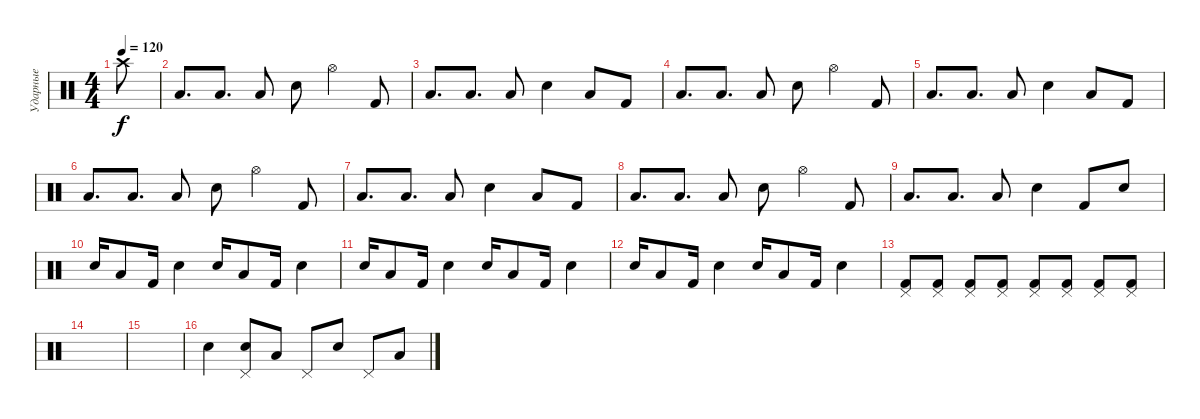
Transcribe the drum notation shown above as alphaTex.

\track ("Ударные" "Ударные") {instrument percussion}
\staff {score}
\articulation defaults
\ts (4 4)
\tempo 120
\clef neutral
\ks c "Crash high (hit)".8{dy f}
|
"Low Tom (hit)".8{d} "Low Tom (hit)".8{d} "Low Tom (hit)".8 "Snare (hit) 2".8 "Hi-Hat (open)".4 "Kick (hit) 2".8 |
"Low Tom (hit)".8{d} "Low Tom (hit)".8{d} "Low Tom (hit)".8 "Snare (hit) 2".4 "Low Tom (hit)".8 "Kick (hit) 2".8 |
"Low Tom (hit)".8{d} "Low Tom (hit)".8{d} "Low Tom (hit)".8 "Snare (hit) 2".8 "Hi-Hat (open)".4 "Kick (hit) 2".8 |
"Low Tom (hit)".8{d} "Low Tom (hit)".8{d} "Low Tom (hit)".8 "Snare (hit) 2".4 "Low Tom (hit)".8 "Kick (hit) 2".8 |
"Low Tom (hit)".8{d} "Low Tom (hit)".8{d} "Low Tom (hit)".8 "Snare (hit) 2".8 "Hi-Hat (open)".4 "Kick (hit) 2".8 |
"Low Tom (hit)".8{d} "Low Tom (hit)".8{d} "Low Tom (hit)".8 "Snare (hit) 2".4 "Low Tom (hit)".8 "Kick (hit) 2".8 |
"Low Tom (hit)".8{d} "Low Tom (hit)".8{d} "Low Tom (hit)".8 "Snare (hit) 2".8 "Hi-Hat (open)".4 "Kick (hit) 2".8 |
"Low Tom (hit)".8{d} "Low Tom (hit)".8{d} "Low Tom (hit)".8 "Snare (hit) 2".4 "Kick (hit) 2".8 "Snare (hit) 2".8 |
"Snare (hit) 2".16 "Low Tom (hit)".8 "Kick (hit) 2".16 "Snare (hit) 2".4 "Snare (hit) 2".16 "Low Tom (hit)".8 "Kick (hit) 2".16 "Snare (hit) 2".4 |
"Snare (hit) 2".16 "Low Tom (hit)".8 "Kick (hit) 2".16 "Snare (hit) 2".4 "Snare (hit) 2".16 "Low Tom (hit)".8 "Kick (hit) 2".16 "Snare (hit) 2".4 |
"Snare (hit) 2".16 "Low Tom (hit)".8 "Kick (hit) 2".16 "Snare (hit) 2".4 "Snare (hit) 2".16 "Low Tom (hit)".8 "Kick (hit) 2".16 "Snare (hit) 2".4 |
("Pedal Hi-Hat (hit)" "Kick (hit) 2").8 ("Pedal Hi-Hat (hit)" "Kick (hit) 2").8 ("Pedal Hi-Hat (hit)" "Kick (hit) 2").8 ("Pedal Hi-Hat (hit)" "Kick (hit) 2").8 ("Pedal Hi-Hat (hit)" "Kick (hit) 2").8 ("Pedal Hi-Hat (hit)" "Kick (hit) 2").8 ("Pedal Hi-Hat (hit)" "Kick (hit) 2").8 ("Pedal Hi-Hat (hit)" "Kick (hit) 2").8 |
|
|
"Snare (hit) 2".4 ("Pedal Hi-Hat (hit)" "Snare (hit) 2").8 "Low Tom (hit)".8 "Pedal Hi-Hat (hit)".8 "Snare (hit) 2".8 "Pedal Hi-Hat (hit)".8 "Low Tom (hit)".8
